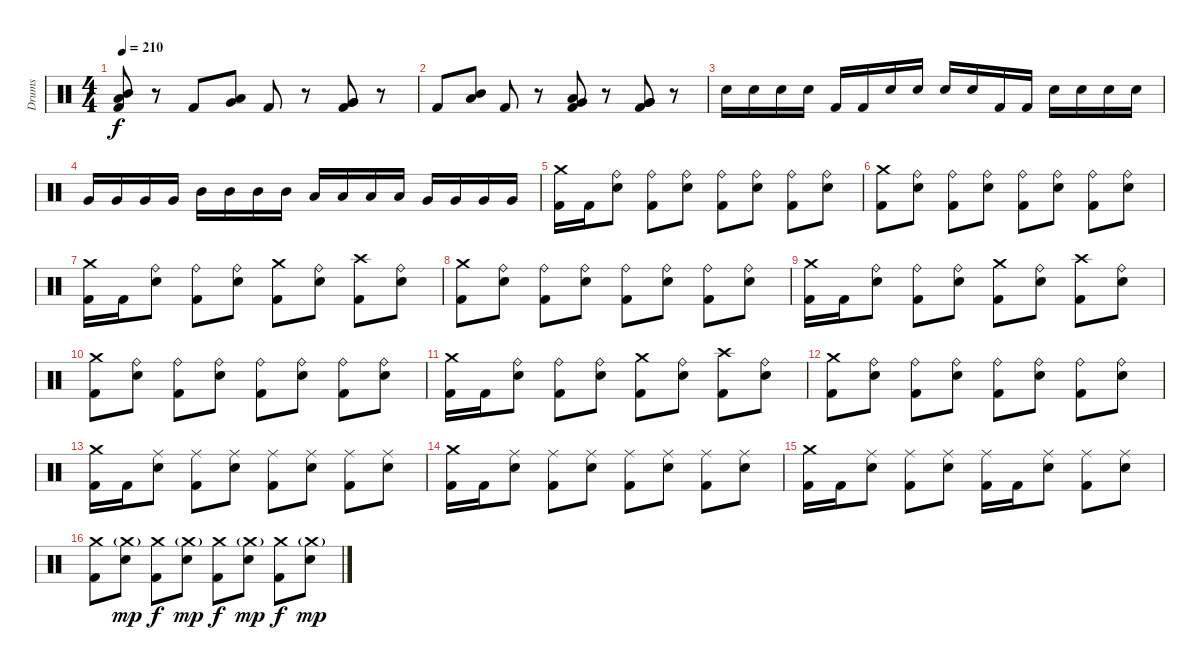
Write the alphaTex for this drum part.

\track ("Drums" "Drums") {instrument percussion}
\staff {score}
\articulation defaults
\ts (4 4)
\tempo 210
\clef neutral
\ks c
("Kick (hit) 2" "Mid Tom (hit)" "Low Tom (hit)").8{dy f} r.8 "Kick (hit) 2".8 ("Low Tom (hit)" "Very Low Tom (hit)").8 "Kick (hit) 2".8 r.8 ("Kick (hit) 2" "Very Low Tom (hit)" "Very Low Tom (hit)").8 r.8 |
"Kick (hit) 2".8 ("Mid Tom (hit)" "Low Tom (hit)").8 "Kick (hit) 2".8 r.8 ("Kick (hit) 2" "Low Tom (hit)" "Very Low Tom (hit)").8 r.8 ("Kick (hit) 2" "Very Low Tom (hit)" "Very Low Tom (hit)").8 r.8 |
"Snare (hit) 2".16 "Snare (hit) 2".16 "Snare (hit) 2".16 "Snare (hit) 2".16 "Kick (hit) 2".16 "Kick (hit) 2".16 "Snare (hit) 2".16 "Snare (hit) 2".16 "Snare (hit) 2".16 "Snare (hit) 2".16 "Kick (hit) 2".16 "Kick (hit) 2".16 "Snare (hit) 2".16 "Snare (hit) 2".16 "Snare (hit) 2".16 "Snare (hit) 2".16 |
"Very Low Tom (hit)".16 "Very Low Tom (hit)".16 "Very Low Tom (hit)".16 "Very Low Tom (hit)".16 "Mid Tom (hit)".16 "Mid Tom (hit)".16 "Mid Tom (hit)".16 "Mid Tom (hit)".16 "Low Tom (hit)".16 "Low Tom (hit)".16 "Low Tom (hit)".16 "Low Tom (hit)".16 "Very Low Tom (hit)".16 "Very Low Tom (hit)".16 "Very Low Tom (hit)".16 "Very Low Tom (hit)".16 |
("Kick (hit) 2" "Crash medium (hit)").16 "Kick (hit) 2".16 ("Snare (hit) 2" "Ride (bell)").8 ("Kick (hit) 2" "Ride (bell)").8 ("Snare (hit) 2" "Ride (bell)").8 ("Kick (hit) 2" "Ride (bell)").8 ("Snare (hit) 2" "Ride (bell)").8 ("Kick (hit) 2" "Ride (bell)").8 ("Snare (hit) 2" "Ride (bell)").8 |
("Kick (hit) 2" "Crash medium (hit)").8 ("Snare (hit) 2" "Ride (bell)").8 ("Kick (hit) 2" "Ride (bell)").8 ("Snare (hit) 2" "Ride (bell)").8 ("Kick (hit) 2" "Ride (bell)").8 ("Snare (hit) 2" "Ride (bell)").8 ("Kick (hit) 2" "Ride (bell)").8 ("Snare (hit) 2" "Ride (bell)").8 |
("Kick (hit) 2" "Crash medium (hit)").16 "Kick (hit) 2".16 ("Snare (hit) 2" "Ride (bell)").8 ("Kick (hit) 2" "Ride (bell)").8 ("Snare (hit) 2" "Ride (bell)").8 ("Kick (hit) 2" "Crash medium (hit)").8 ("Snare (hit) 2" "Ride (bell)").8 ("Kick (hit) 2" "Crash high (hit)").8 ("Snare (hit) 2" "Ride (bell)").8 |
("Kick (hit) 2" "Crash medium (hit)").8 ("Snare (hit) 2" "Ride (bell)").8 ("Kick (hit) 2" "Ride (bell)").8 ("Snare (hit) 2" "Ride (bell)").8 ("Kick (hit) 2" "Ride (bell)").8 ("Snare (hit) 2" "Ride (bell)").8 ("Kick (hit) 2" "Ride (bell)").8 ("Snare (hit) 2" "Ride (bell)").8 |
("Kick (hit) 2" "Crash medium (hit)").16 "Kick (hit) 2".16 ("Snare (hit) 2" "Ride (bell)").8 ("Kick (hit) 2" "Ride (bell)").8 ("Snare (hit) 2" "Ride (bell)").8 ("Kick (hit) 2" "Crash medium (hit)").8 ("Snare (hit) 2" "Ride (bell)").8 ("Kick (hit) 2" "Crash high (hit)").8 ("Snare (hit) 2" "Ride (bell)").8 |
("Kick (hit) 2" "Crash medium (hit)").8 ("Snare (hit) 2" "Ride (bell)").8 ("Kick (hit) 2" "Ride (bell)").8 ("Snare (hit) 2" "Ride (bell)").8 ("Kick (hit) 2" "Ride (bell)").8 ("Snare (hit) 2" "Ride (bell)").8 ("Kick (hit) 2" "Ride (bell)").8 ("Snare (hit) 2" "Ride (bell)").8 |
("Kick (hit) 2" "Crash medium (hit)").16 "Kick (hit) 2".16 ("Snare (hit) 2" "Ride (bell)").8 ("Kick (hit) 2" "Ride (bell)").8 ("Snare (hit) 2" "Ride (bell)").8 ("Kick (hit) 2" "Crash medium (hit)").8 ("Snare (hit) 2" "Ride (bell)").8 ("Kick (hit) 2" "Crash high (hit)").8 ("Snare (hit) 2" "Ride (bell)").8 |
("Kick (hit) 2" "Crash medium (hit)").8 ("Snare (hit) 2" "Ride (bell)").8 ("Kick (hit) 2" "Ride (bell)").8 ("Snare (hit) 2" "Ride (bell)").8 ("Kick (hit) 2" "Ride (bell)").8 ("Snare (hit) 2" "Ride (bell)").8 ("Kick (hit) 2" "Ride (bell)").8 ("Snare (hit) 2" "Ride (bell)").8 |
("Kick (hit) 2" "Crash medium (hit)").16 "Kick (hit) 2".16 ("Snare (hit) 2" "Ride (middle)").8 ("Kick (hit) 2" "Ride (middle)").8 ("Snare (hit) 2" "Ride (middle)").8 ("Kick (hit) 2" "Ride (middle)").8 ("Snare (hit) 2" "Ride (middle)").8 ("Kick (hit) 2" "Ride (middle)").8 ("Snare (hit) 2" "Ride (middle)").8 |
("Kick (hit) 2" "Crash medium (hit)").16 "Kick (hit) 2".16 ("Snare (hit) 2" "Ride (middle)").8 ("Kick (hit) 2" "Ride (middle)").8 ("Snare (hit) 2" "Ride (middle)").8 ("Kick (hit) 2" "Ride (middle)").8 ("Snare (hit) 2" "Ride (middle)").8 ("Kick (hit) 2" "Ride (middle)").8 ("Snare (hit) 2" "Ride (middle)").8 |
("Kick (hit) 2" "Crash medium (hit)").16 "Kick (hit) 2".16 ("Snare (hit) 2" "Ride (middle)").8 ("Kick (hit) 2" "Ride (middle)").8 ("Snare (hit) 2" "Ride (middle)").8 ("Kick (hit) 2" "Ride (middle)").16 "Kick (hit) 2".16 ("Snare (hit) 2" "Ride (middle)").8 ("Kick (hit) 2" "Ride (middle)").8 ("Snare (hit) 2" "Ride (middle)").8 |
("Kick (hit) 2" "Crash medium (hit)").8 ("Snare (hit) 2" "Crash medium (hit)"{g}).8{dy mp} ("Kick (hit) 2" "Crash medium (hit)").8{dy f} ("Snare (hit) 2" "Crash medium (hit)"{g}).8{dy mp} ("Kick (hit) 2" "Crash medium (hit)").8{dy f} ("Snare (hit) 2" "Crash medium (hit)"{g}).8{dy mp} ("Kick (hit) 2" "Crash medium (hit)").8{dy f} ("Snare (hit) 2" "Crash medium (hit)"{g}).8{dy mp}
